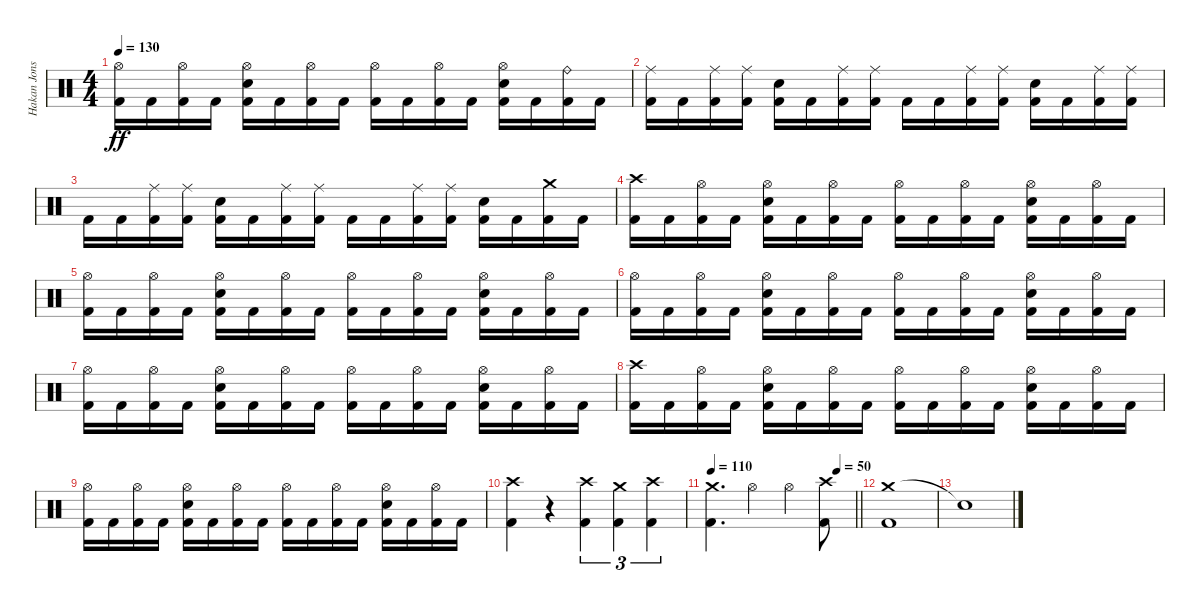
\track ("Hakan Jonsson" "Hakan Jons") {instrument percussion}
\staff {score}
\articulation defaults
\ts (4 4)
\tempo 130
\clef neutral
\ks c
("Hi-Hat (open)" "Kick (hit) 2").16{dy ff} "Kick (hit) 2".16 ("Hi-Hat (open)" "Kick (hit) 2").16 "Kick (hit) 2".16 ("Hi-Hat (open)" "Electric Snare (hit)" "Kick (hit) 2").16 "Kick (hit) 2".16 ("Hi-Hat (open)" "Kick (hit) 2").16 "Kick (hit) 2".16 ("Hi-Hat (open)" "Kick (hit) 2").16 "Kick (hit) 2".16 ("Hi-Hat (open)" "Kick (hit) 2").16 "Kick (hit) 2".16 ("Hi-Hat (open)" "Electric Snare (hit)" "Kick (hit) 2").16 "Kick (hit) 2".16 ("Ride (bell)" "Kick (hit) 2").16 "Kick (hit) 2".16 |
("Ride (middle)" "Kick (hit) 2").16 "Kick (hit) 2".16 ("Ride (middle)" "Kick (hit) 2").16 ("Ride (middle)" "Kick (hit) 2").16 ("Electric Snare (hit)" "Kick (hit) 2").16 "Kick (hit) 2".16 ("Ride (middle)" "Kick (hit) 2").16 ("Ride (middle)" "Kick (hit) 2").16 "Kick (hit) 2".16 "Kick (hit) 2".16 ("Ride (middle)" "Kick (hit) 2").16 ("Ride (middle)" "Kick (hit) 2").16 ("Electric Snare (hit)" "Kick (hit) 2").16 "Kick (hit) 2".16 ("Ride (middle)" "Kick (hit) 2").16 ("Ride (middle)" "Kick (hit) 2").16 |
"Kick (hit) 2".16 "Kick (hit) 2".16 ("Ride (middle)" "Kick (hit) 2").16 ("Ride (middle)" "Kick (hit) 2").16 ("Electric Snare (hit)" "Kick (hit) 2").16 "Kick (hit) 2".16 ("Ride (middle)" "Kick (hit) 2").16 ("Ride (middle)" "Kick (hit) 2").16 "Kick (hit) 2".16 "Kick (hit) 2".16 ("Ride (middle)" "Kick (hit) 2").16 ("Ride (middle)" "Kick (hit) 2").16 ("Electric Snare (hit)" "Kick (hit) 2").16 "Kick (hit) 2".16 ("Crash medium (hit)" "Kick (hit) 2").16 "Kick (hit) 2".16 |
("Crash high (hit)" "Kick (hit) 2").16 "Kick (hit) 2".16 ("Hi-Hat (open)" "Kick (hit) 2").16 "Kick (hit) 2".16 ("Hi-Hat (open)" "Electric Snare (hit)" "Kick (hit) 2").16 "Kick (hit) 2".16 ("Hi-Hat (open)" "Kick (hit) 2").16 "Kick (hit) 2".16 ("Hi-Hat (open)" "Kick (hit) 2").16 "Kick (hit) 2".16 ("Hi-Hat (open)" "Kick (hit) 2").16 "Kick (hit) 2".16 ("Hi-Hat (open)" "Electric Snare (hit)" "Kick (hit) 2").16 "Kick (hit) 2".16 ("Hi-Hat (open)" "Kick (hit) 2").16 "Kick (hit) 2".16 |
("Hi-Hat (open)" "Kick (hit) 2").16 "Kick (hit) 2".16 ("Hi-Hat (open)" "Kick (hit) 2").16 "Kick (hit) 2".16 ("Hi-Hat (open)" "Electric Snare (hit)" "Kick (hit) 2").16 "Kick (hit) 2".16 ("Hi-Hat (open)" "Kick (hit) 2").16 "Kick (hit) 2".16 ("Hi-Hat (open)" "Kick (hit) 2").16 "Kick (hit) 2".16 ("Hi-Hat (open)" "Kick (hit) 2").16 "Kick (hit) 2".16 ("Hi-Hat (open)" "Electric Snare (hit)" "Kick (hit) 2").16 "Kick (hit) 2".16 ("Hi-Hat (open)" "Kick (hit) 2").16 "Kick (hit) 2".16 |
("Hi-Hat (open)" "Kick (hit) 2").16 "Kick (hit) 2".16 ("Hi-Hat (open)" "Kick (hit) 2").16 "Kick (hit) 2".16 ("Hi-Hat (open)" "Electric Snare (hit)" "Kick (hit) 2").16 "Kick (hit) 2".16 ("Hi-Hat (open)" "Kick (hit) 2").16 "Kick (hit) 2".16 ("Hi-Hat (open)" "Kick (hit) 2").16 "Kick (hit) 2".16 ("Hi-Hat (open)" "Kick (hit) 2").16 "Kick (hit) 2".16 ("Hi-Hat (open)" "Electric Snare (hit)" "Kick (hit) 2").16 "Kick (hit) 2".16 ("Hi-Hat (open)" "Kick (hit) 2").16 "Kick (hit) 2".16 |
("Hi-Hat (open)" "Kick (hit) 2").16 "Kick (hit) 2".16 ("Hi-Hat (open)" "Kick (hit) 2").16 "Kick (hit) 2".16 ("Hi-Hat (open)" "Electric Snare (hit)" "Kick (hit) 2").16 "Kick (hit) 2".16 ("Hi-Hat (open)" "Kick (hit) 2").16 "Kick (hit) 2".16 ("Hi-Hat (open)" "Kick (hit) 2").16 "Kick (hit) 2".16 ("Hi-Hat (open)" "Kick (hit) 2").16 "Kick (hit) 2".16 ("Hi-Hat (open)" "Electric Snare (hit)" "Kick (hit) 2").16 "Kick (hit) 2".16 ("Hi-Hat (open)" "Kick (hit) 2").16 "Kick (hit) 2".16 |
("Crash high (hit)" "Kick (hit) 2").16 "Kick (hit) 2".16 ("Hi-Hat (open)" "Kick (hit) 2").16 "Kick (hit) 2".16 ("Hi-Hat (open)" "Electric Snare (hit)" "Kick (hit) 2").16 "Kick (hit) 2".16 ("Hi-Hat (open)" "Kick (hit) 2").16 "Kick (hit) 2".16 ("Hi-Hat (open)" "Kick (hit) 2").16 "Kick (hit) 2".16 ("Hi-Hat (open)" "Kick (hit) 2").16 "Kick (hit) 2".16 ("Hi-Hat (open)" "Electric Snare (hit)" "Kick (hit) 2").16 "Kick (hit) 2".16 ("Hi-Hat (open)" "Kick (hit) 2").16 "Kick (hit) 2".16 |
("Hi-Hat (open)" "Kick (hit) 2").16 "Kick (hit) 2".16 ("Hi-Hat (open)" "Kick (hit) 2").16 "Kick (hit) 2".16 ("Hi-Hat (open)" "Electric Snare (hit)" "Kick (hit) 2").16 "Kick (hit) 2".16 ("Hi-Hat (open)" "Kick (hit) 2").16 "Kick (hit) 2".16 ("Hi-Hat (open)" "Kick (hit) 2").16 "Kick (hit) 2".16 ("Hi-Hat (open)" "Kick (hit) 2").16 "Kick (hit) 2".16 ("Hi-Hat (open)" "Electric Snare (hit)" "Kick (hit) 2").16 "Kick (hit) 2".16 ("Hi-Hat (open)" "Kick (hit) 2").16 "Kick (hit) 2".16 |
("Crash high (hit)" "Kick (hit) 2").4 r.4 ("Crash high (hit)" "Kick (hit) 2").4{tu (3 2)} ("Crash medium (hit)" "Kick (hit) 2").4{tu (3 2)} ("Crash high (hit)" "Kick (hit) 2").4{tu (3 2)} |
\tempo 110
\tempo (50 0.875)
\barLineRight lightlight
("Crash medium (hit)" "Kick (hit) 2").4{d} "Hi-Hat (open)".4 "Hi-Hat (open)".4 ("Crash high (hit)" "Kick (hit) 2").8 |
("Crash medium (hit)" "Kick (hit) 2").1 |
"Snare (hit)"{t}.1
